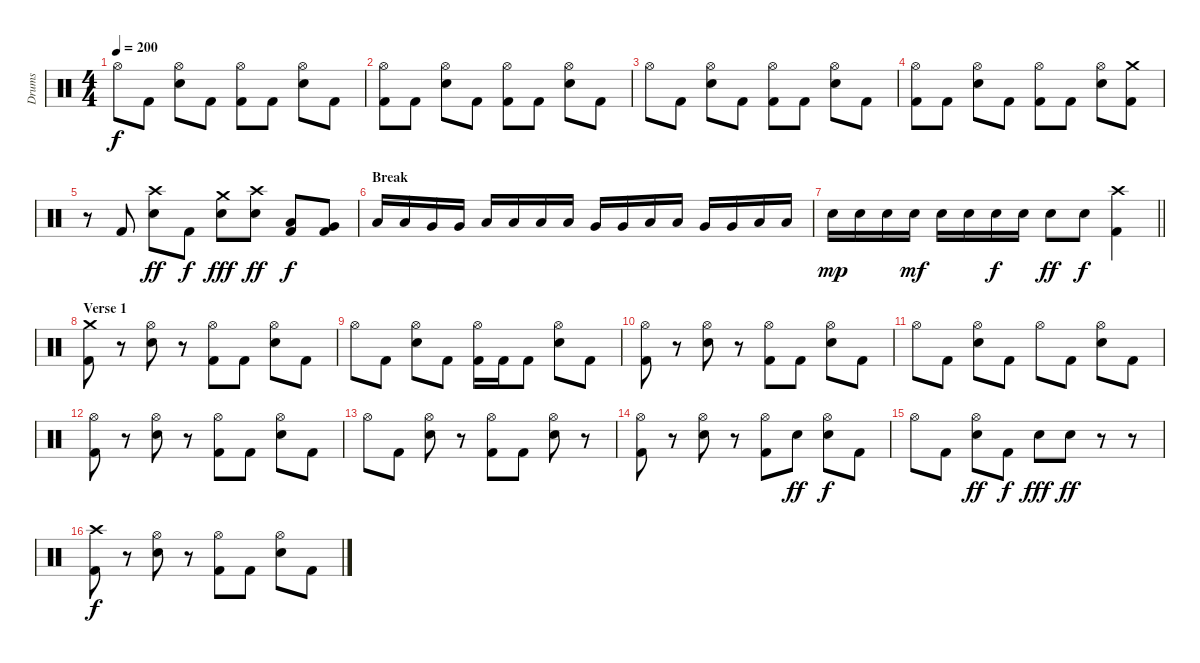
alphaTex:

\track ("Drums" "Drums") {instrument percussion}
\staff {score}
\articulation defaults
\ts (4 4)
\tempo 200
\clef neutral
\ks c "Hi-Hat (open)".8{dy f} "Kick (hit) 2".8
("Electric Snare (hit)" "Hi-Hat (open)").8 "Kick (hit) 2".8 ("Kick (hit) 2" "Hi-Hat (open)").8 "Kick (hit) 2".8 ("Electric Snare (hit)" "Hi-Hat (open)").8 "Kick (hit) 2".8 |
("Kick (hit) 2" "Hi-Hat (open)").8 "Kick (hit) 2".8 ("Electric Snare (hit)" "Hi-Hat (open)").8 "Kick (hit) 2".8 ("Kick (hit) 2" "Hi-Hat (open)").8 "Kick (hit) 2".8 ("Electric Snare (hit)" "Hi-Hat (open)").8 "Kick (hit) 2".8 |
"Hi-Hat (open)".8 "Kick (hit) 2".8 ("Electric Snare (hit)" "Hi-Hat (open)").8 "Kick (hit) 2".8 ("Kick (hit) 2" "Hi-Hat (open)").8 "Kick (hit) 2".8 ("Electric Snare (hit)" "Hi-Hat (open)").8 "Kick (hit) 2".8 |
("Kick (hit) 2" "Hi-Hat (open)").8 "Kick (hit) 2".8 ("Electric Snare (hit)" "Hi-Hat (open)").8 "Kick (hit) 2".8 ("Kick (hit) 2" "Hi-Hat (open)").8 "Kick (hit) 2".8 ("Electric Snare (hit)" "Hi-Hat (open)").8 ("Kick (hit) 2" "Crash medium (hit)").8 |
r.8 "Kick (hit) 2".8 ("Electric Snare (hit)" "Crash high (hit)").8{dy ff} "Kick (hit) 2".8{dy f} ("Electric Snare (hit)" "Crash medium (hit)").8{dy fff} ("Electric Snare (hit)" "Crash high (hit)").8{dy ff} ("Kick (hit) 2" "Low Tom (hit)").8{dy f} ("Kick (hit) 2" "Very Low Tom (hit)").8 |
\section ("" "Break")
"Low Tom (hit)".16 "Low Tom (hit)".16 "Very Low Tom (hit)".16 "Very Low Tom (hit)".16 "Low Floor Tom (hit)".16 "Low Floor Tom (hit)".16 "Low Tom (hit)".16 "Low Tom (hit)".16 "Very Low Tom (hit)".16 "Very Low Tom (hit)".16 "Low Floor Tom (hit)".16 "Low Floor Tom (hit)".16 "Very Low Tom (hit)".16 "Very Low Tom (hit)".16 "Low Floor Tom (hit)".16 "Low Floor Tom (hit)".16 |
\barLineRight lightlight "Electric Snare (hit)".16{dy mp} "Electric Snare (hit)".16 "Electric Snare (hit)".16 "Electric Snare (hit)".16{dy mf} "Electric Snare (hit)".16 "Electric Snare (hit)".16 "Electric Snare (hit)".16{dy f} "Electric Snare (hit)".16 "Electric Snare (hit)".8{dy ff} "Electric Snare (hit)".8{dy f}
("Kick (hit) 2" "Crash high (hit)").4 |
\section ("" "Verse 1")
("Kick (hit) 2" "Crash medium (hit)").8 r.8 ("Electric Snare (hit)" "Hi-Hat (open)").8 r.8 ("Kick (hit) 2" "Hi-Hat (open)").8 "Kick (hit) 2".8 ("Electric Snare (hit)" "Hi-Hat (open)").8 "Kick (hit) 2".8 |
"Hi-Hat (open)".8 "Kick (hit) 2".8 ("Electric Snare (hit)" "Hi-Hat (open)").8 "Kick (hit) 2".8 ("Kick (hit) 2" "Hi-Hat (open)").16 "Kick (hit) 2".16 "Kick (hit) 2".8 ("Electric Snare (hit)" "Hi-Hat (open)").8 "Kick (hit) 2".8 |
("Kick (hit) 2" "Hi-Hat (open)").8 r.8 ("Electric Snare (hit)" "Hi-Hat (open)").8 r.8 ("Kick (hit) 2" "Hi-Hat (open)").8 "Kick (hit) 2".8 ("Electric Snare (hit)" "Hi-Hat (open)").8 "Kick (hit) 2".8 |
"Hi-Hat (open)".8 "Kick (hit) 2".8 ("Electric Snare (hit)" "Hi-Hat (open)").8 "Kick (hit) 2".8 "Hi-Hat (open)".8 "Kick (hit) 2".8 ("Electric Snare (hit)" "Hi-Hat (open)").8 "Kick (hit) 2".8 |
("Kick (hit) 2" "Hi-Hat (open)").8 r.8 ("Electric Snare (hit)" "Hi-Hat (open)").8 r.8 ("Kick (hit) 2" "Hi-Hat (open)").8 "Kick (hit) 2".8 ("Electric Snare (hit)" "Hi-Hat (open)").8 "Kick (hit) 2".8 |
"Hi-Hat (open)".8 "Kick (hit) 2".8 ("Electric Snare (hit)" "Hi-Hat (open)").8 r.8 ("Kick (hit) 2" "Hi-Hat (open)").8 "Kick (hit) 2".8 ("Electric Snare (hit)" "Hi-Hat (open)").8 r.8 |
("Kick (hit) 2" "Hi-Hat (open)").8 r.8 ("Electric Snare (hit)" "Hi-Hat (open)").8 r.8 ("Kick (hit) 2" "Hi-Hat (open)").8 "Electric Snare (hit)".8{dy ff} ("Electric Snare (hit)" "Hi-Hat (open)").8{dy f} "Kick (hit) 2".8 |
"Hi-Hat (open)".8 "Kick (hit) 2".8 ("Electric Snare (hit)" "Hi-Hat (open)").8{dy ff} "Kick (hit) 2".8{dy f} "Electric Snare (hit)".8{dy fff} "Electric Snare (hit)".8{dy ff} r.8 r.8 |
("Kick (hit) 2" "Crash high (hit)").8{dy f} r.8 ("Electric Snare (hit)" "Hi-Hat (open)").8 r.8 ("Kick (hit) 2" "Hi-Hat (open)").8 "Kick (hit) 2".8 ("Electric Snare (hit)" "Hi-Hat (open)").8 "Kick (hit) 2".8
